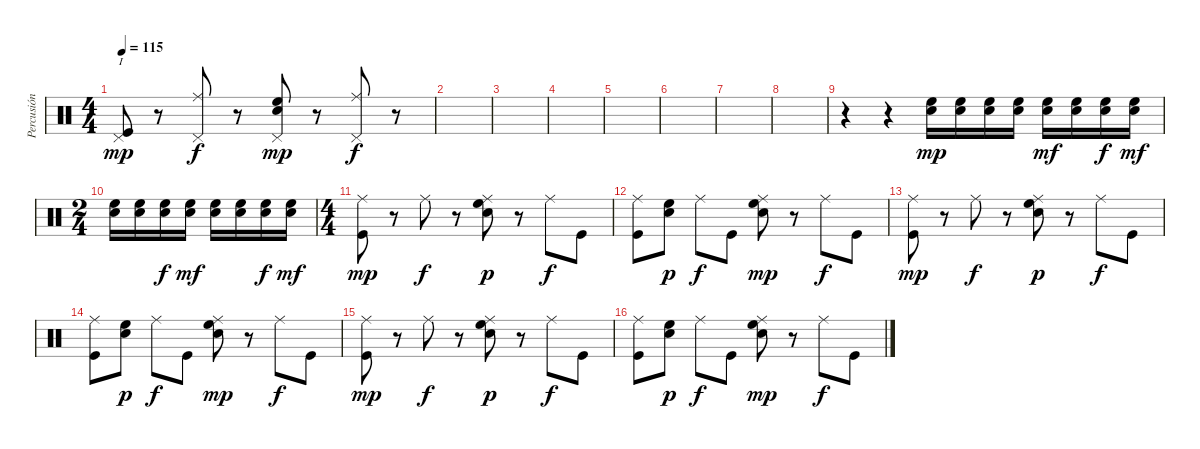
\track ("Percusión" "Percusión") {instrument percussion}
\staff {score}
\articulation defaults
\ts (4 4)
\tempo 115
\clef neutral
\ks c
("Pedal Hi-Hat (hit)" "Kick (hit)").8{txt "I" dy mp} r.8 ("Pedal Hi-Hat (hit)" "Ride (middle)").8{dy f} r.8 ("Pedal Hi-Hat (hit)" "Electric Snare (hit)" "High Floor Tom (hit)").8{dy mp} r.8 ("Pedal Hi-Hat (hit)" "Ride (middle)").8{dy f} r.8 |
|
|
|
|
|
|
|
r.4 r.4 ("Electric Snare (hit)" "High Floor Tom (hit)").16{dy mp} ("Electric Snare (hit)" "High Floor Tom (hit)").16 ("Electric Snare (hit)" "High Floor Tom (hit)").16 ("Electric Snare (hit)" "High Floor Tom (hit)").16 ("Electric Snare (hit)" "High Floor Tom (hit)").16{dy mf} ("Electric Snare (hit)" "High Floor Tom (hit)").16 ("Electric Snare (hit)" "High Floor Tom (hit)").16{dy f} ("Electric Snare (hit)" "High Floor Tom (hit)").16{dy mf} |
\ts (2 4)
("Electric Snare (hit)" "High Floor Tom (hit)").16 ("Electric Snare (hit)" "High Floor Tom (hit)").16 ("Electric Snare (hit)" "High Floor Tom (hit)").16{dy f} ("Electric Snare (hit)" "High Floor Tom (hit)").16{dy mf} ("Electric Snare (hit)" "High Floor Tom (hit)").16 ("Electric Snare (hit)" "High Floor Tom (hit)").16 ("Electric Snare (hit)" "High Floor Tom (hit)").16{dy f} ("Electric Snare (hit)" "High Floor Tom (hit)").16{dy mf} |
\ts (4 4)
("Ride (middle)" "Kick (hit)").8{dy mp} r.8 "Ride (middle)".8{dy f} r.8 ("Ride (middle)" "Electric Snare (hit)" "High Floor Tom (hit)").8{dy p} r.8 "Ride (middle)".8{dy f} "Kick (hit)".8 |
("Ride (middle)" "Kick (hit)").8 ("High Floor Tom (hit)" "Electric Snare (hit)").8{dy p} "Ride (middle)".8{dy f} "Kick (hit)".8 ("Ride (middle)" "High Floor Tom (hit)" "Electric Snare (hit)").8{dy mp} r.8 "Ride (middle)".8{dy f} "Kick (hit)".8 |
("Ride (middle)" "Kick (hit)").8{dy mp} r.8 "Ride (middle)".8{dy f} r.8 ("Ride (middle)" "Electric Snare (hit)" "High Floor Tom (hit)").8{dy p} r.8 "Ride (middle)".8{dy f} "Kick (hit)".8 |
("Ride (middle)" "Kick (hit)").8 ("High Floor Tom (hit)" "Electric Snare (hit)").8{dy p} "Ride (middle)".8{dy f} "Kick (hit)".8 ("Ride (middle)" "High Floor Tom (hit)" "Electric Snare (hit)").8{dy mp} r.8 "Ride (middle)".8{dy f} "Kick (hit)".8 |
("Ride (middle)" "Kick (hit)").8{dy mp} r.8 "Ride (middle)".8{dy f} r.8 ("Ride (middle)" "Electric Snare (hit)" "High Floor Tom (hit)").8{dy p} r.8 "Ride (middle)".8{dy f} "Kick (hit)".8 |
("Ride (middle)" "Kick (hit)").8 ("High Floor Tom (hit)" "Electric Snare (hit)").8{dy p} "Ride (middle)".8{dy f} "Kick (hit)".8 ("Ride (middle)" "High Floor Tom (hit)" "Electric Snare (hit)").8{dy mp} r.8 "Ride (middle)".8{dy f} "Kick (hit)".8
